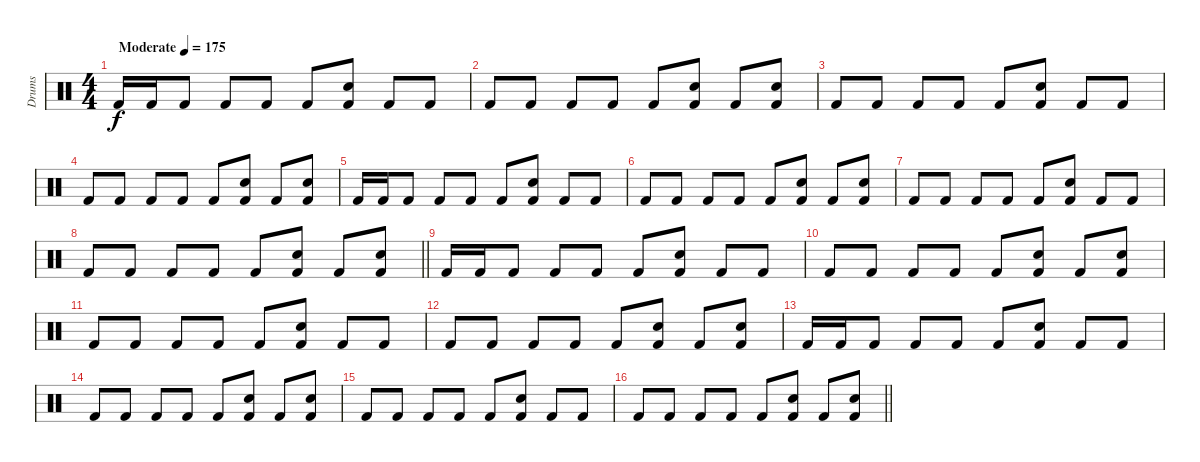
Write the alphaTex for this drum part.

\track ("Drums" "Drums") {instrument percussion}
\staff {score}
\articulation defaults
\ts (4 4)
\tempo (175 "Moderate")
\clef neutral
\ks c "Kick (hit) 2".16{dy f} "Kick (hit) 2".16 "Kick (hit) 2".8 "Kick (hit) 2".8 "Kick (hit) 2".8 "Kick (hit) 2".8
("Snare (hit) 2" "Kick (hit) 2").8 "Kick (hit) 2".8 "Kick (hit) 2".8 |
"Kick (hit) 2".8 "Kick (hit) 2".8 "Kick (hit) 2".8 "Kick (hit) 2".8 "Kick (hit) 2".8 ("Snare (hit) 2" "Kick (hit) 2").8 "Kick (hit) 2".8 ("Snare (hit) 2" "Kick (hit) 2").8 |
"Kick (hit) 2".8 "Kick (hit) 2".8 "Kick (hit) 2".8 "Kick (hit) 2".8 "Kick (hit) 2".8 ("Snare (hit) 2" "Kick (hit) 2").8 "Kick (hit) 2".8 "Kick (hit) 2".8 |
"Kick (hit) 2".8 "Kick (hit) 2".8 "Kick (hit) 2".8 "Kick (hit) 2".8 "Kick (hit) 2".8 ("Snare (hit) 2" "Kick (hit) 2").8 "Kick (hit) 2".8 ("Snare (hit) 2" "Kick (hit) 2").8 |
"Kick (hit) 2".16 "Kick (hit) 2".16 "Kick (hit) 2".8 "Kick (hit) 2".8 "Kick (hit) 2".8 "Kick (hit) 2".8 ("Snare (hit) 2" "Kick (hit) 2").8 "Kick (hit) 2".8 "Kick (hit) 2".8 |
"Kick (hit) 2".8 "Kick (hit) 2".8 "Kick (hit) 2".8 "Kick (hit) 2".8 "Kick (hit) 2".8 ("Snare (hit) 2" "Kick (hit) 2").8 "Kick (hit) 2".8 ("Snare (hit) 2" "Kick (hit) 2").8 |
"Kick (hit) 2".8 "Kick (hit) 2".8 "Kick (hit) 2".8 "Kick (hit) 2".8 "Kick (hit) 2".8 ("Snare (hit) 2" "Kick (hit) 2").8 "Kick (hit) 2".8 "Kick (hit) 2".8 |
\barLineRight lightlight "Kick (hit) 2".8 "Kick (hit) 2".8 "Kick (hit) 2".8 "Kick (hit) 2".8 "Kick (hit) 2".8
("Snare (hit) 2" "Kick (hit) 2").8 "Kick (hit) 2".8 ("Snare (hit) 2" "Kick (hit) 2").8 |
"Kick (hit) 2".16 "Kick (hit) 2".16 "Kick (hit) 2".8 "Kick (hit) 2".8 "Kick (hit) 2".8 "Kick (hit) 2".8 ("Snare (hit) 2" "Kick (hit) 2").8 "Kick (hit) 2".8 "Kick (hit) 2".8 |
"Kick (hit) 2".8 "Kick (hit) 2".8 "Kick (hit) 2".8 "Kick (hit) 2".8 "Kick (hit) 2".8 ("Snare (hit) 2" "Kick (hit) 2").8 "Kick (hit) 2".8 ("Snare (hit) 2" "Kick (hit) 2").8 |
"Kick (hit) 2".8 "Kick (hit) 2".8 "Kick (hit) 2".8 "Kick (hit) 2".8 "Kick (hit) 2".8 ("Snare (hit) 2" "Kick (hit) 2").8 "Kick (hit) 2".8 "Kick (hit) 2".8 |
"Kick (hit) 2".8 "Kick (hit) 2".8 "Kick (hit) 2".8 "Kick (hit) 2".8 "Kick (hit) 2".8 ("Snare (hit) 2" "Kick (hit) 2").8 "Kick (hit) 2".8 ("Snare (hit) 2" "Kick (hit) 2").8 |
"Kick (hit) 2".16 "Kick (hit) 2".16 "Kick (hit) 2".8 "Kick (hit) 2".8 "Kick (hit) 2".8 "Kick (hit) 2".8 ("Snare (hit) 2" "Kick (hit) 2").8 "Kick (hit) 2".8 "Kick (hit) 2".8 |
"Kick (hit) 2".8 "Kick (hit) 2".8 "Kick (hit) 2".8 "Kick (hit) 2".8 "Kick (hit) 2".8 ("Snare (hit) 2" "Kick (hit) 2").8 "Kick (hit) 2".8 ("Snare (hit) 2" "Kick (hit) 2").8 |
"Kick (hit) 2".8 "Kick (hit) 2".8 "Kick (hit) 2".8 "Kick (hit) 2".8 "Kick (hit) 2".8 ("Snare (hit) 2" "Kick (hit) 2").8 "Kick (hit) 2".8 "Kick (hit) 2".8 |
\barLineRight lightlight "Kick (hit) 2".8 "Kick (hit) 2".8 "Kick (hit) 2".8 "Kick (hit) 2".8 "Kick (hit) 2".8
("Snare (hit) 2" "Kick (hit) 2").8 "Kick (hit) 2".8 ("Snare (hit) 2" "Kick (hit) 2").8
